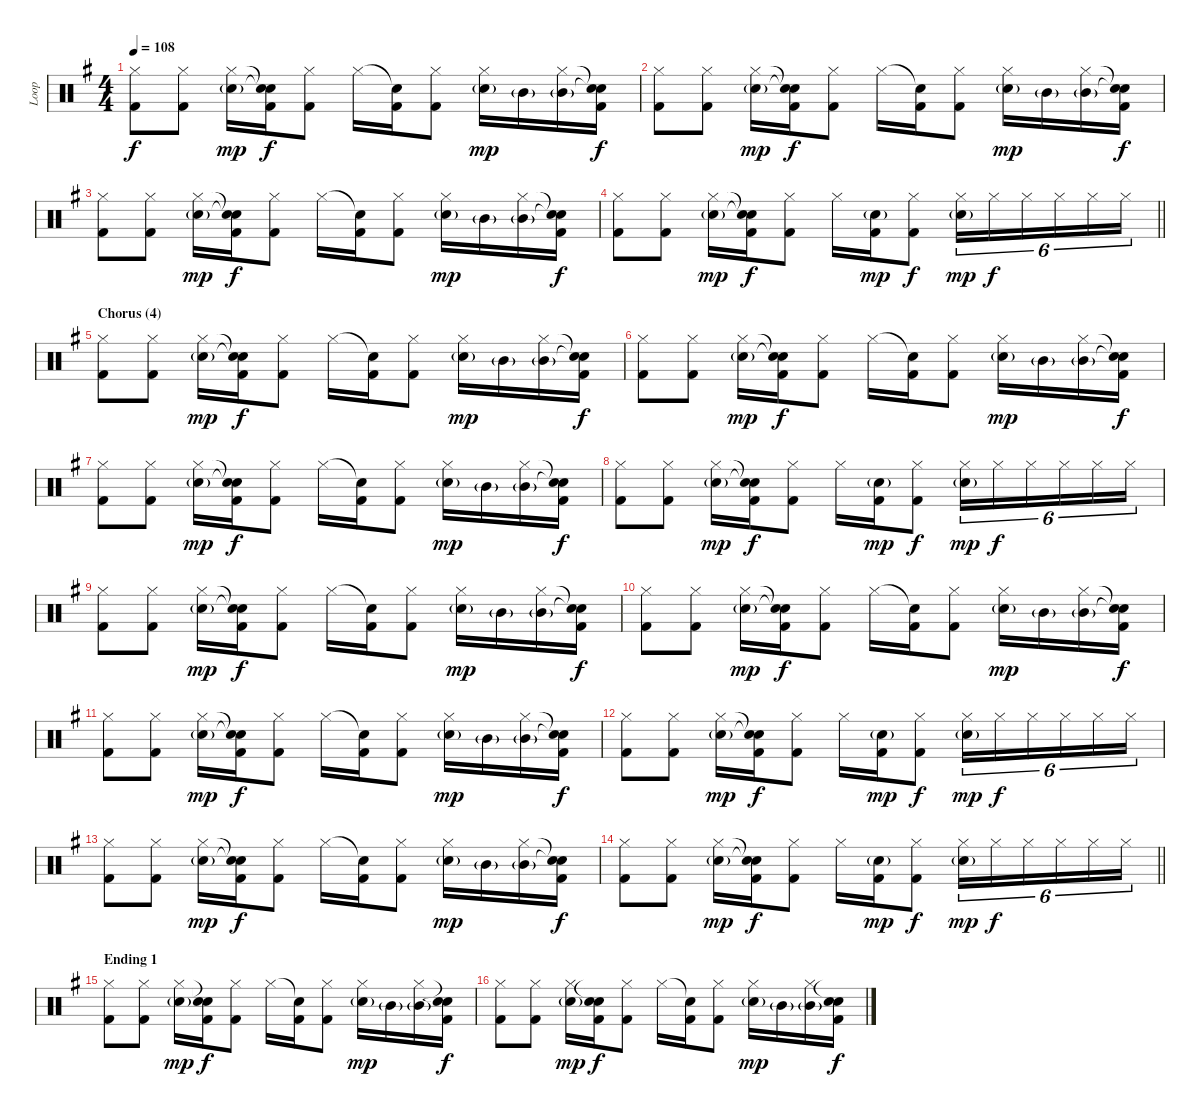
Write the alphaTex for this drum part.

\track ("Loop" "Loop") {instrument percussion}
\staff {score}
\articulation defaults
\ts (4 4)
\tempo 108
\clef neutral
\ks eminor
("Hi-Hat (closed)" "Kick (hit) 2").8{dy f} ("Hi-Hat (closed)" "Kick (hit) 2").8 ("Hi-Hat (closed)" "Electric Snare (hit)"{g}).16{dy mp} ("Snare (hit)"{t} "Snare (hit)"{t} "Kick (hit) 2").16{dy f} ("Hi-Hat (closed)" "Kick (hit) 2").8 "Hi-Hat (closed)".16 ("Snare (hit)"{t} "Kick (hit) 2").16 ("Hi-Hat (closed)" "Kick (hit) 2").8 ("Hi-Hat (closed)" "Electric Snare (hit)"{g}).16{dy mp} "Mid Tom (hit)"{g}.16 ("Hi-Hat (closed)" "Mid Tom (hit)"{g}).16 ("Snare (hit)"{t} "Snare (hit)"{t} "Kick (hit) 2").16{dy f} |
("Hi-Hat (closed)" "Kick (hit) 2").8 ("Hi-Hat (closed)" "Kick (hit) 2").8 ("Hi-Hat (closed)" "Electric Snare (hit)"{g}).16{dy mp} ("Snare (hit)"{t} "Snare (hit)"{t} "Kick (hit) 2").16{dy f} ("Hi-Hat (closed)" "Kick (hit) 2").8 "Hi-Hat (closed)".16 ("Snare (hit)"{t} "Kick (hit) 2").16 ("Hi-Hat (closed)" "Kick (hit) 2").8 ("Hi-Hat (closed)" "Electric Snare (hit)"{g}).16{dy mp} "Mid Tom (hit)"{g}.16 ("Hi-Hat (closed)" "Mid Tom (hit)"{g}).16 ("Snare (hit)"{t} "Snare (hit)"{t} "Kick (hit) 2").16{dy f} |
("Hi-Hat (closed)" "Kick (hit) 2").8 ("Hi-Hat (closed)" "Kick (hit) 2").8 ("Hi-Hat (closed)" "Electric Snare (hit)"{g}).16{dy mp} ("Snare (hit)"{t} "Snare (hit)"{t} "Kick (hit) 2").16{dy f} ("Hi-Hat (closed)" "Kick (hit) 2").8 "Hi-Hat (closed)".16 ("Snare (hit)"{t} "Kick (hit) 2").16 ("Hi-Hat (closed)" "Kick (hit) 2").8 ("Hi-Hat (closed)" "Electric Snare (hit)"{g}).16{dy mp} "Mid Tom (hit)"{g}.16 ("Hi-Hat (closed)" "Mid Tom (hit)"{g}).16 ("Snare (hit)"{t} "Snare (hit)"{t} "Kick (hit) 2").16{dy f} |
\barLineRight lightlight
("Hi-Hat (closed)" "Kick (hit) 2").8 ("Hi-Hat (closed)" "Kick (hit) 2").8 ("Hi-Hat (closed)" "Electric Snare (hit)"{g}).16{dy mp} ("Snare (hit)"{t} "Snare (hit)"{t} "Kick (hit) 2").16{dy f} ("Hi-Hat (closed)" "Kick (hit) 2").8 "Hi-Hat (closed)".16 ("Electric Snare (hit)"{g} "Kick (hit) 2").16{dy mp} ("Hi-Hat (closed)" "Kick (hit) 2").8{dy f} ("Hi-Hat (closed)" "Electric Snare (hit)"{g}).16{tu (6 4) dy mp} "Hi-Hat (closed)".16{tu (6 4) dy f} "Hi-Hat (closed)".16{tu (6 4)} "Hi-Hat (closed)".16{tu (6 4)} "Hi-Hat (closed)".16{tu (6 4)} "Hi-Hat (closed)".16{tu (6 4)} |
\section ("" "Chorus (4)")
("Hi-Hat (closed)" "Kick (hit) 2").8 ("Hi-Hat (closed)" "Kick (hit) 2").8 ("Hi-Hat (closed)" "Electric Snare (hit)"{g}).16{dy mp} ("Snare (hit)"{t} "Snare (hit)"{t} "Kick (hit) 2").16{dy f} ("Hi-Hat (closed)" "Kick (hit) 2").8 "Hi-Hat (closed)".16 ("Snare (hit)"{t} "Kick (hit) 2").16 ("Hi-Hat (closed)" "Kick (hit) 2").8 ("Hi-Hat (closed)" "Electric Snare (hit)"{g}).16{dy mp} "Mid Tom (hit)"{g}.16 ("Hi-Hat (closed)" "Mid Tom (hit)"{g}).16 ("Snare (hit)"{t} "Snare (hit)"{t} "Kick (hit) 2").16{dy f} |
("Hi-Hat (closed)" "Kick (hit) 2").8 ("Hi-Hat (closed)" "Kick (hit) 2").8 ("Hi-Hat (closed)" "Electric Snare (hit)"{g}).16{dy mp} ("Snare (hit)"{t} "Snare (hit)"{t} "Kick (hit) 2").16{dy f} ("Hi-Hat (closed)" "Kick (hit) 2").8 "Hi-Hat (closed)".16 ("Snare (hit)"{t} "Kick (hit) 2").16 ("Hi-Hat (closed)" "Kick (hit) 2").8 ("Hi-Hat (closed)" "Electric Snare (hit)"{g}).16{dy mp} "Mid Tom (hit)"{g}.16 ("Hi-Hat (closed)" "Mid Tom (hit)"{g}).16 ("Snare (hit)"{t} "Snare (hit)"{t} "Kick (hit) 2").16{dy f} |
("Hi-Hat (closed)" "Kick (hit) 2").8 ("Hi-Hat (closed)" "Kick (hit) 2").8 ("Hi-Hat (closed)" "Electric Snare (hit)"{g}).16{dy mp} ("Snare (hit)"{t} "Snare (hit)"{t} "Kick (hit) 2").16{dy f} ("Hi-Hat (closed)" "Kick (hit) 2").8 "Hi-Hat (closed)".16 ("Snare (hit)"{t} "Kick (hit) 2").16 ("Hi-Hat (closed)" "Kick (hit) 2").8 ("Hi-Hat (closed)" "Electric Snare (hit)"{g}).16{dy mp} "Mid Tom (hit)"{g}.16 ("Hi-Hat (closed)" "Mid Tom (hit)"{g}).16 ("Snare (hit)"{t} "Snare (hit)"{t} "Kick (hit) 2").16{dy f} |
("Hi-Hat (closed)" "Kick (hit) 2").8 ("Hi-Hat (closed)" "Kick (hit) 2").8 ("Hi-Hat (closed)" "Electric Snare (hit)"{g}).16{dy mp} ("Snare (hit)"{t} "Snare (hit)"{t} "Kick (hit) 2").16{dy f} ("Hi-Hat (closed)" "Kick (hit) 2").8 "Hi-Hat (closed)".16 ("Electric Snare (hit)"{g} "Kick (hit) 2").16{dy mp} ("Hi-Hat (closed)" "Kick (hit) 2").8{dy f} ("Hi-Hat (closed)" "Electric Snare (hit)"{g}).16{tu (6 4) dy mp} "Hi-Hat (closed)".16{tu (6 4) dy f} "Hi-Hat (closed)".16{tu (6 4)} "Hi-Hat (closed)".16{tu (6 4)} "Hi-Hat (closed)".16{tu (6 4)} "Hi-Hat (closed)".16{tu (6 4)} |
("Hi-Hat (closed)" "Kick (hit) 2").8 ("Hi-Hat (closed)" "Kick (hit) 2").8 ("Hi-Hat (closed)" "Electric Snare (hit)"{g}).16{dy mp} ("Snare (hit)"{t} "Snare (hit)"{t} "Kick (hit) 2").16{dy f} ("Hi-Hat (closed)" "Kick (hit) 2").8 "Hi-Hat (closed)".16 ("Snare (hit)"{t} "Kick (hit) 2").16 ("Hi-Hat (closed)" "Kick (hit) 2").8 ("Hi-Hat (closed)" "Electric Snare (hit)"{g}).16{dy mp} "Mid Tom (hit)"{g}.16 ("Hi-Hat (closed)" "Mid Tom (hit)"{g}).16 ("Snare (hit)"{t} "Snare (hit)"{t} "Kick (hit) 2").16{dy f} |
("Hi-Hat (closed)" "Kick (hit) 2").8 ("Hi-Hat (closed)" "Kick (hit) 2").8 ("Hi-Hat (closed)" "Electric Snare (hit)"{g}).16{dy mp} ("Snare (hit)"{t} "Snare (hit)"{t} "Kick (hit) 2").16{dy f} ("Hi-Hat (closed)" "Kick (hit) 2").8 "Hi-Hat (closed)".16 ("Snare (hit)"{t} "Kick (hit) 2").16 ("Hi-Hat (closed)" "Kick (hit) 2").8 ("Hi-Hat (closed)" "Electric Snare (hit)"{g}).16{dy mp} "Mid Tom (hit)"{g}.16 ("Hi-Hat (closed)" "Mid Tom (hit)"{g}).16 ("Snare (hit)"{t} "Snare (hit)"{t} "Kick (hit) 2").16{dy f} |
("Hi-Hat (closed)" "Kick (hit) 2").8 ("Hi-Hat (closed)" "Kick (hit) 2").8 ("Hi-Hat (closed)" "Electric Snare (hit)"{g}).16{dy mp} ("Snare (hit)"{t} "Snare (hit)"{t} "Kick (hit) 2").16{dy f} ("Hi-Hat (closed)" "Kick (hit) 2").8 "Hi-Hat (closed)".16 ("Snare (hit)"{t} "Kick (hit) 2").16 ("Hi-Hat (closed)" "Kick (hit) 2").8 ("Hi-Hat (closed)" "Electric Snare (hit)"{g}).16{dy mp} "Mid Tom (hit)"{g}.16 ("Hi-Hat (closed)" "Mid Tom (hit)"{g}).16 ("Snare (hit)"{t} "Snare (hit)"{t} "Kick (hit) 2").16{dy f} |
("Hi-Hat (closed)" "Kick (hit) 2").8 ("Hi-Hat (closed)" "Kick (hit) 2").8 ("Hi-Hat (closed)" "Electric Snare (hit)"{g}).16{dy mp} ("Snare (hit)"{t} "Snare (hit)"{t} "Kick (hit) 2").16{dy f} ("Hi-Hat (closed)" "Kick (hit) 2").8 "Hi-Hat (closed)".16 ("Electric Snare (hit)"{g} "Kick (hit) 2").16{dy mp} ("Hi-Hat (closed)" "Kick (hit) 2").8{dy f} ("Hi-Hat (closed)" "Electric Snare (hit)"{g}).16{tu (6 4) dy mp} "Hi-Hat (closed)".16{tu (6 4) dy f} "Hi-Hat (closed)".16{tu (6 4)} "Hi-Hat (closed)".16{tu (6 4)} "Hi-Hat (closed)".16{tu (6 4)} "Hi-Hat (closed)".16{tu (6 4)} |
("Hi-Hat (closed)" "Kick (hit) 2").8 ("Hi-Hat (closed)" "Kick (hit) 2").8 ("Hi-Hat (closed)" "Electric Snare (hit)"{g}).16{dy mp} ("Snare (hit)"{t} "Snare (hit)"{t} "Kick (hit) 2").16{dy f} ("Hi-Hat (closed)" "Kick (hit) 2").8 "Hi-Hat (closed)".16 ("Snare (hit)"{t} "Kick (hit) 2").16 ("Hi-Hat (closed)" "Kick (hit) 2").8 ("Hi-Hat (closed)" "Electric Snare (hit)"{g}).16{dy mp} "Mid Tom (hit)"{g}.16 ("Hi-Hat (closed)" "Mid Tom (hit)"{g}).16 ("Snare (hit)"{t} "Snare (hit)"{t} "Kick (hit) 2").16{dy f} |
\barLineRight lightlight
("Hi-Hat (closed)" "Kick (hit) 2").8 ("Hi-Hat (closed)" "Kick (hit) 2").8 ("Hi-Hat (closed)" "Electric Snare (hit)"{g}).16{dy mp} ("Snare (hit)"{t} "Snare (hit)"{t} "Kick (hit) 2").16{dy f} ("Hi-Hat (closed)" "Kick (hit) 2").8 "Hi-Hat (closed)".16 ("Electric Snare (hit)"{g} "Kick (hit) 2").16{dy mp} ("Hi-Hat (closed)" "Kick (hit) 2").8{dy f} ("Hi-Hat (closed)" "Electric Snare (hit)"{g}).16{tu (6 4) dy mp} "Hi-Hat (closed)".16{tu (6 4) dy f} "Hi-Hat (closed)".16{tu (6 4)} "Hi-Hat (closed)".16{tu (6 4)} "Hi-Hat (closed)".16{tu (6 4)} "Hi-Hat (closed)".16{tu (6 4)} |
\section ("" "Ending 1")
("Hi-Hat (closed)" "Kick (hit) 2").8 ("Hi-Hat (closed)" "Kick (hit) 2").8 ("Hi-Hat (closed)" "Electric Snare (hit)"{g}).16{dy mp} ("Snare (hit)"{t} "Snare (hit)"{t} "Kick (hit) 2").16{dy f} ("Hi-Hat (closed)" "Kick (hit) 2").8 "Hi-Hat (closed)".16 ("Snare (hit)"{t} "Kick (hit) 2").16 ("Hi-Hat (closed)" "Kick (hit) 2").8 ("Hi-Hat (closed)" "Electric Snare (hit)"{g}).16{dy mp} "Mid Tom (hit)"{g}.16 ("Hi-Hat (closed)" "Mid Tom (hit)"{g}).16 ("Snare (hit)"{t} "Snare (hit)"{t} "Kick (hit) 2").16{dy f} |
("Hi-Hat (closed)" "Kick (hit) 2").8 ("Hi-Hat (closed)" "Kick (hit) 2").8 ("Hi-Hat (closed)" "Electric Snare (hit)"{g}).16{dy mp} ("Snare (hit)"{t} "Snare (hit)"{t} "Kick (hit) 2").16{dy f} ("Hi-Hat (closed)" "Kick (hit) 2").8 "Hi-Hat (closed)".16 ("Snare (hit)"{t} "Kick (hit) 2").16 ("Hi-Hat (closed)" "Kick (hit) 2").8 ("Hi-Hat (closed)" "Electric Snare (hit)"{g}).16{dy mp} "Mid Tom (hit)"{g}.16 ("Hi-Hat (closed)" "Mid Tom (hit)"{g}).16 ("Snare (hit)"{t} "Snare (hit)"{t} "Kick (hit) 2").16{dy f}
